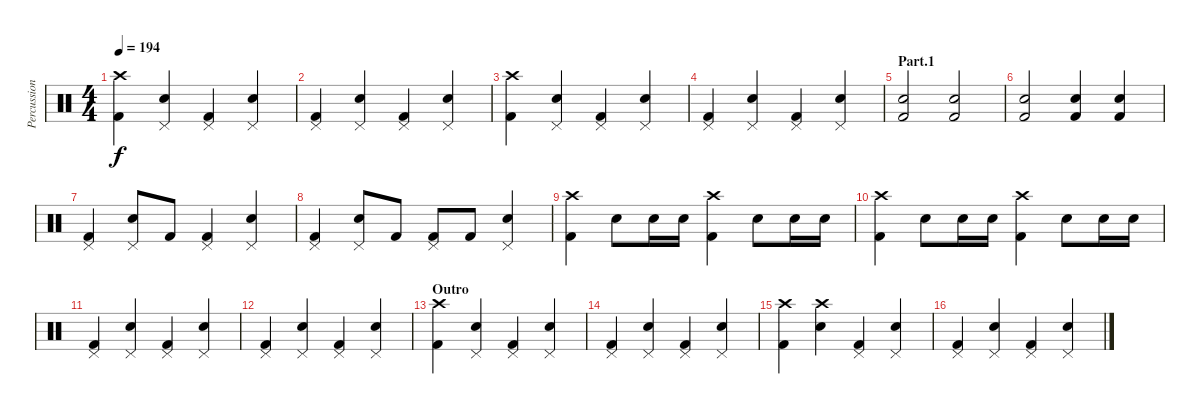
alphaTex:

\track ("Percussions" "Percussion") {instrument percussion}
\staff {score}
\articulation defaults
\ts (4 4)
\tempo 194
\clef neutral
\ks c
("Crash high (hit)" "Kick (hit) 2").4{dy f} ("Pedal Hi-Hat (hit)" "Snare (hit) 2").4 ("Pedal Hi-Hat (hit)" "Kick (hit) 2").4 ("Pedal Hi-Hat (hit)" "Snare (hit) 2").4 |
("Pedal Hi-Hat (hit)" "Kick (hit) 2").4 ("Pedal Hi-Hat (hit)" "Snare (hit) 2").4 ("Pedal Hi-Hat (hit)" "Kick (hit) 2").4 ("Pedal Hi-Hat (hit)" "Snare (hit) 2").4 |
("Crash high (hit)" "Kick (hit) 2").4 ("Pedal Hi-Hat (hit)" "Snare (hit) 2").4 ("Pedal Hi-Hat (hit)" "Kick (hit) 2").4 ("Pedal Hi-Hat (hit)" "Snare (hit) 2").4 |
("Pedal Hi-Hat (hit)" "Kick (hit) 2").4 ("Pedal Hi-Hat (hit)" "Snare (hit) 2").4 ("Pedal Hi-Hat (hit)" "Kick (hit) 2").4 ("Pedal Hi-Hat (hit)" "Snare (hit) 2").4 |
\section ("" "Part.1")
("Snare (hit) 2" "Kick (hit) 2").2 ("Snare (hit) 2" "Kick (hit) 2").2 |
("Snare (hit) 2" "Kick (hit) 2").2 ("Snare (hit) 2" "Kick (hit) 2").4 ("Snare (hit) 2" "Kick (hit) 2").4 |
("Pedal Hi-Hat (hit)" "Kick (hit) 2").4 ("Pedal Hi-Hat (hit)" "Snare (hit) 2").8 "Kick (hit) 2".8 ("Pedal Hi-Hat (hit)" "Kick (hit) 2").4 ("Pedal Hi-Hat (hit)" "Snare (hit) 2").4 |
("Pedal Hi-Hat (hit)" "Kick (hit) 2").4 ("Pedal Hi-Hat (hit)" "Snare (hit) 2").8 "Kick (hit) 2".8 ("Pedal Hi-Hat (hit)" "Kick (hit) 2").8 "Kick (hit) 2".8 ("Pedal Hi-Hat (hit)" "Snare (hit) 2").4 |
("Crash high (hit)" "Kick (hit) 2").4 "Snare (hit) 2".8 "Snare (hit) 2".16 "Snare (hit) 2".16 ("Crash high (hit)" "Kick (hit) 2").4 "Snare (hit) 2".8 "Snare (hit) 2".16 "Snare (hit) 2".16 |
("Crash high (hit)" "Kick (hit) 2").4 "Snare (hit) 2".8 "Snare (hit) 2".16 "Snare (hit) 2".16 ("Crash high (hit)" "Kick (hit) 2").4 "Snare (hit) 2".8 "Snare (hit) 2".16 "Snare (hit) 2".16 |
("Pedal Hi-Hat (hit)" "Kick (hit) 2").4 ("Pedal Hi-Hat (hit)" "Snare (hit) 2").4 ("Pedal Hi-Hat (hit)" "Kick (hit) 2").4 ("Pedal Hi-Hat (hit)" "Snare (hit) 2").4 |
("Pedal Hi-Hat (hit)" "Kick (hit) 2").4 ("Pedal Hi-Hat (hit)" "Snare (hit) 2").4 ("Pedal Hi-Hat (hit)" "Kick (hit) 2").4 ("Pedal Hi-Hat (hit)" "Snare (hit) 2").4 |
\section ("" "Outro")
("Crash high (hit)" "Kick (hit) 2").4 ("Pedal Hi-Hat (hit)" "Snare (hit) 2").4 ("Pedal Hi-Hat (hit)" "Kick (hit) 2").4 ("Pedal Hi-Hat (hit)" "Snare (hit) 2").4 |
("Pedal Hi-Hat (hit)" "Kick (hit) 2").4 ("Pedal Hi-Hat (hit)" "Snare (hit) 2").4 ("Pedal Hi-Hat (hit)" "Kick (hit) 2").4 ("Pedal Hi-Hat (hit)" "Snare (hit) 2").4 |
("Crash high (hit)" "Kick (hit) 2").4 ("Crash high (hit)" "Snare (hit) 2").4 ("Pedal Hi-Hat (hit)" "Kick (hit) 2").4 ("Pedal Hi-Hat (hit)" "Snare (hit) 2").4 |
("Pedal Hi-Hat (hit)" "Kick (hit) 2").4 ("Pedal Hi-Hat (hit)" "Snare (hit) 2").4 ("Pedal Hi-Hat (hit)" "Kick (hit) 2").4 ("Pedal Hi-Hat (hit)" "Snare (hit) 2").4
